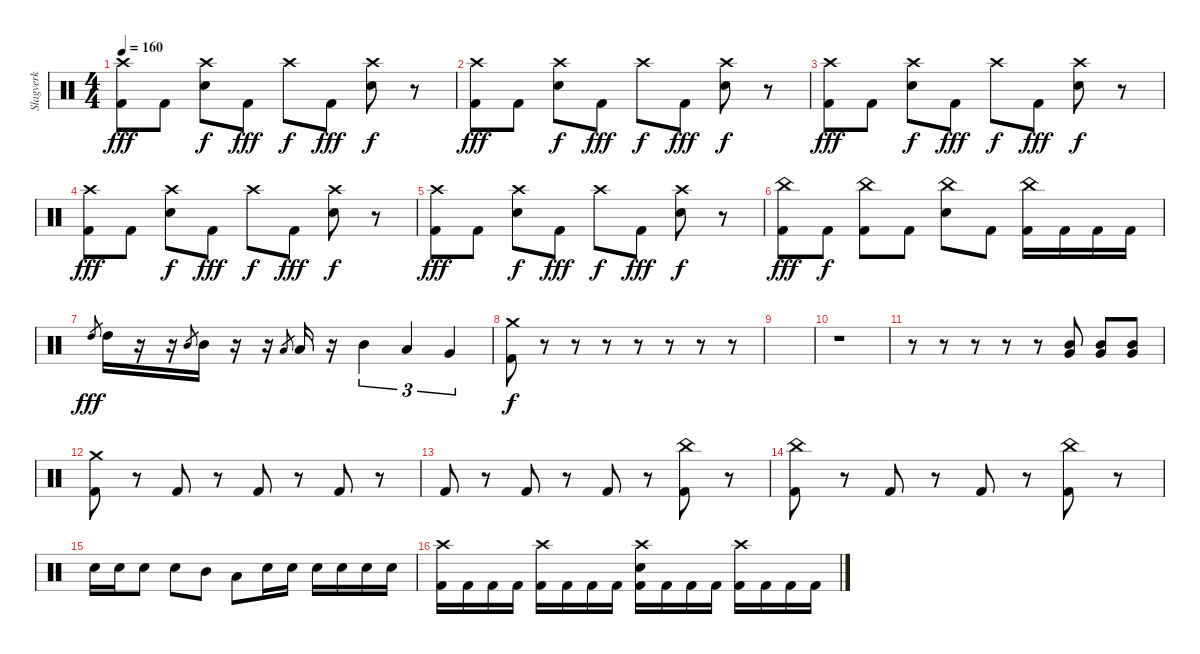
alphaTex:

\track ("Slagverk" "Slagverk") {instrument percussion}
\staff {score}
\articulation defaults
\ts (4 4)
\tempo 160
\clef neutral
\ks c
("Crash high (hit)" "Kick (hit) 2").8{dy fff} "Kick (hit) 2".8 ("Crash high (hit)" "Snare (hit) 2").8{dy f} "Kick (hit) 2".8{dy fff} "Crash high (hit)".8{dy f} "Kick (hit) 2".8{dy fff} ("Crash high (hit)" "Snare (hit) 2").8{dy f} r.8 |
("Crash high (hit)" "Kick (hit) 2").8{dy fff} "Kick (hit) 2".8 ("Crash high (hit)" "Snare (hit) 2").8{dy f} "Kick (hit) 2".8{dy fff} "Crash high (hit)".8{dy f} "Kick (hit) 2".8{dy fff} ("Crash high (hit)" "Snare (hit) 2").8{dy f} r.8 |
("Crash high (hit)" "Kick (hit) 2").8{dy fff} "Kick (hit) 2".8 ("Crash high (hit)" "Snare (hit) 2").8{dy f} "Kick (hit) 2".8{dy fff} "Crash high (hit)".8{dy f} "Kick (hit) 2".8{dy fff} ("Crash high (hit)" "Snare (hit) 2").8{dy f} r.8 |
("Crash high (hit)" "Kick (hit) 2").8{dy fff} "Kick (hit) 2".8 ("Crash high (hit)" "Snare (hit) 2").8{dy f} "Kick (hit) 2".8{dy fff} "Crash high (hit)".8{dy f} "Kick (hit) 2".8{dy fff} ("Crash high (hit)" "Snare (hit) 2").8{dy f} r.8 |
("Crash high (hit)" "Kick (hit) 2").8{dy fff} "Kick (hit) 2".8 ("Crash high (hit)" "Snare (hit) 2").8{dy f} "Kick (hit) 2".8{dy fff} "Crash high (hit)".8{dy f} "Kick (hit) 2".8{dy fff} ("Crash high (hit)" "Snare (hit) 2").8{dy f} r.8 |
("China (hit)" "Kick (hit) 2").8{dy fff} "Kick (hit) 2".8{dy f} ("China (hit)" "Kick (hit) 2").8 "Kick (hit) 2".8 ("China (hit)" "Snare (hit) 2").8 "Kick (hit) 2".8 ("China (hit)" "Kick (hit) 2").16 "Kick (hit) 2".16 "Kick (hit) 2".16 "Kick (hit) 2".16 |
"High Tom (hit)".8{gr dy fff} "High Tom (hit)".16 r.16 r.16 "Mid Tom (hit)".8{gr} "Mid Tom (hit)".16 r.16 r.16 "Low Tom (hit)".8{gr} "Low Tom (hit)".16 r.16 "Mid Tom (hit)".4{tu (3 2)} "Low Tom (hit)".4{tu (3 2)} "Very Low Tom (hit)".4{tu (3 2)} |
("Crash medium (hit)" "Kick (hit) 2").8{dy f} r.8 r.8 r.8 r.8 r.8 r.8 r.8 |
|
r.1 |
r.8 r.8 r.8 r.8 r.8 ("Mid Tom (hit)" "Very Low Tom (hit)").8 ("Mid Tom (hit)" "Very Low Tom (hit)").8 ("Mid Tom (hit)" "Very Low Tom (hit)").8 |
("Crash medium (hit)" "Kick (hit) 2").8 r.8 "Kick (hit) 2".8 r.8 "Kick (hit) 2".8 r.8 "Kick (hit) 2".8 r.8 |
"Kick (hit) 2".8 r.8 "Kick (hit) 2".8 r.8 "Kick (hit) 2".8 r.8 ("China (hit)" "Kick (hit) 2").8 r.8 |
("China (hit)" "Kick (hit) 2").8 r.8 "Kick (hit) 2".8 r.8 "Kick (hit) 2".8 r.8 ("China (hit)" "Kick (hit) 2").8 r.8 |
"Snare (hit) 2".16 "Snare (hit) 2".16 "Snare (hit) 2".8 "Snare (hit) 2".8 "Mid Tom (hit)".8 "Low Tom (hit)".8 "Snare (hit) 2".16 "Snare (hit) 2".16 "Snare (hit) 2".16 "Snare (hit) 2".16 "Snare (hit) 2".16 "Snare (hit) 2".16 |
("Crash high (hit)" "Kick (hit) 2").16 "Kick (hit) 2".16 "Kick (hit) 2".16 "Kick (hit) 2".16 ("Crash high (hit)" "Kick (hit) 2").16 "Kick (hit) 2".16 "Kick (hit) 2".16 "Kick (hit) 2".16 ("Crash high (hit)" "Snare (hit) 2" "Kick (hit) 2").16 "Kick (hit) 2".16 "Kick (hit) 2".16 "Kick (hit) 2".16 ("Crash high (hit)" "Kick (hit) 2").16 "Kick (hit) 2".16 "Kick (hit) 2".16 "Kick (hit) 2".16
